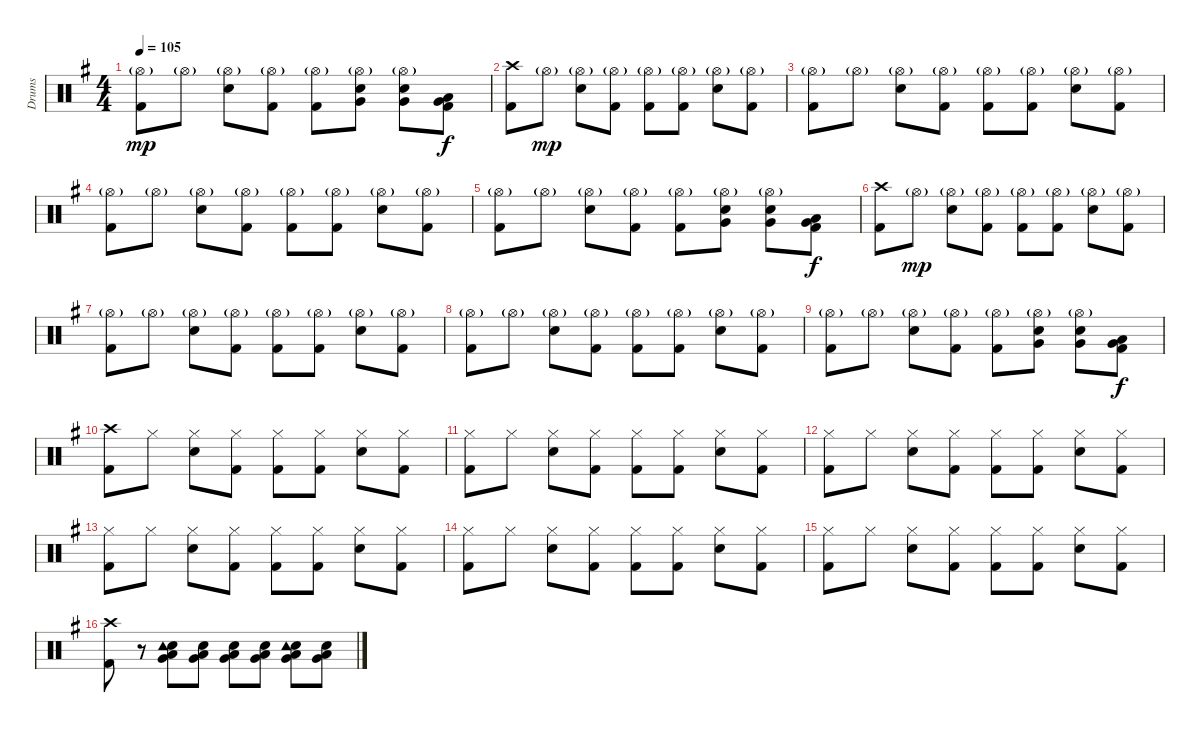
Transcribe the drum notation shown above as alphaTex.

\track ("Drums" "Drums") {instrument percussion}
\staff {score}
\articulation defaults
\ts (4 4)
\tempo 105
\clef neutral
\ks g
("Hi-Hat (open)"{g} "Kick (hit) 2").8{dy mp} "Hi-Hat (open)"{g}.8 ("Hi-Hat (open)"{g} "Snare (hit) 2").8 ("Hi-Hat (open)"{g} "Kick (hit) 2").8 ("Hi-Hat (open)"{g} "Kick (hit) 2").8 ("Hi-Hat (open)"{g} "Snare (hit) 2" "Very Low Tom (hit)").8 ("Hi-Hat (open)"{g} "Snare (hit) 2" "Very Low Tom (hit)").8 ("Kick (hit) 2" "Low Tom (hit)" "Very Low Tom (hit)").8{dy f} |
("Kick (hit) 2" "Crash high (hit)").8 "Hi-Hat (open)"{g}.8{dy mp} ("Hi-Hat (open)"{g} "Snare (hit) 2").8 ("Hi-Hat (open)"{g} "Kick (hit) 2").8 ("Hi-Hat (open)"{g} "Kick (hit) 2").8 ("Hi-Hat (open)"{g} "Kick (hit) 2").8 ("Hi-Hat (open)"{g} "Snare (hit) 2").8 ("Hi-Hat (open)"{g} "Kick (hit) 2").8 |
("Hi-Hat (open)"{g} "Kick (hit) 2").8 "Hi-Hat (open)"{g}.8 ("Hi-Hat (open)"{g} "Snare (hit) 2").8 ("Hi-Hat (open)"{g} "Kick (hit) 2").8 ("Hi-Hat (open)"{g} "Kick (hit) 2").8 ("Hi-Hat (open)"{g} "Kick (hit) 2").8 ("Hi-Hat (open)"{g} "Snare (hit) 2").8 ("Hi-Hat (open)"{g} "Kick (hit) 2").8 |
("Hi-Hat (open)"{g} "Kick (hit) 2").8 "Hi-Hat (open)"{g}.8 ("Hi-Hat (open)"{g} "Snare (hit) 2").8 ("Hi-Hat (open)"{g} "Kick (hit) 2").8 ("Hi-Hat (open)"{g} "Kick (hit) 2").8 ("Hi-Hat (open)"{g} "Kick (hit) 2").8 ("Hi-Hat (open)"{g} "Snare (hit) 2").8 ("Hi-Hat (open)"{g} "Kick (hit) 2").8 |
("Hi-Hat (open)"{g} "Kick (hit) 2").8 "Hi-Hat (open)"{g}.8 ("Hi-Hat (open)"{g} "Snare (hit) 2").8 ("Hi-Hat (open)"{g} "Kick (hit) 2").8 ("Hi-Hat (open)"{g} "Kick (hit) 2").8 ("Hi-Hat (open)"{g} "Snare (hit) 2" "Very Low Tom (hit)").8 ("Hi-Hat (open)"{g} "Snare (hit) 2" "Very Low Tom (hit)").8 ("Kick (hit) 2" "Low Tom (hit)" "Very Low Tom (hit)").8{dy f} |
("Kick (hit) 2" "Crash high (hit)").8 "Hi-Hat (open)"{g}.8{dy mp} ("Hi-Hat (open)"{g} "Snare (hit) 2").8 ("Hi-Hat (open)"{g} "Kick (hit) 2").8 ("Hi-Hat (open)"{g} "Kick (hit) 2").8 ("Hi-Hat (open)"{g} "Kick (hit) 2").8 ("Hi-Hat (open)"{g} "Snare (hit) 2").8 ("Hi-Hat (open)"{g} "Kick (hit) 2").8 |
("Hi-Hat (open)"{g} "Kick (hit) 2").8 "Hi-Hat (open)"{g}.8 ("Hi-Hat (open)"{g} "Snare (hit) 2").8 ("Hi-Hat (open)"{g} "Kick (hit) 2").8 ("Hi-Hat (open)"{g} "Kick (hit) 2").8 ("Hi-Hat (open)"{g} "Kick (hit) 2").8 ("Hi-Hat (open)"{g} "Snare (hit) 2").8 ("Hi-Hat (open)"{g} "Kick (hit) 2").8 |
("Hi-Hat (open)"{g} "Kick (hit) 2").8 "Hi-Hat (open)"{g}.8 ("Hi-Hat (open)"{g} "Snare (hit) 2").8 ("Hi-Hat (open)"{g} "Kick (hit) 2").8 ("Hi-Hat (open)"{g} "Kick (hit) 2").8 ("Hi-Hat (open)"{g} "Kick (hit) 2").8 ("Hi-Hat (open)"{g} "Snare (hit) 2").8 ("Hi-Hat (open)"{g} "Kick (hit) 2").8 |
("Hi-Hat (open)"{g} "Kick (hit) 2").8 "Hi-Hat (open)"{g}.8 ("Hi-Hat (open)"{g} "Snare (hit) 2").8 ("Hi-Hat (open)"{g} "Kick (hit) 2").8 ("Hi-Hat (open)"{g} "Kick (hit) 2").8 ("Hi-Hat (open)"{g} "Snare (hit) 2" "Very Low Tom (hit)").8 ("Hi-Hat (open)"{g} "Snare (hit) 2" "Very Low Tom (hit)").8 ("Kick (hit) 2" "Low Tom (hit)" "Very Low Tom (hit)").8{dy f} |
("Kick (hit) 2" "Crash high (hit)").8 "Hi-Hat (closed)".8 ("Hi-Hat (closed)" "Snare (hit) 2").8 ("Hi-Hat (closed)" "Kick (hit) 2").8 ("Hi-Hat (closed)" "Kick (hit) 2").8 ("Hi-Hat (closed)" "Kick (hit) 2").8 ("Hi-Hat (closed)" "Snare (hit) 2").8 ("Hi-Hat (closed)" "Kick (hit) 2").8 |
("Hi-Hat (closed)" "Kick (hit) 2").8 "Hi-Hat (closed)".8 ("Hi-Hat (closed)" "Snare (hit) 2").8 ("Hi-Hat (closed)" "Kick (hit) 2").8 ("Hi-Hat (closed)" "Kick (hit) 2").8 ("Hi-Hat (closed)" "Kick (hit) 2").8 ("Hi-Hat (closed)" "Snare (hit) 2").8 ("Hi-Hat (closed)" "Kick (hit) 2").8 |
("Hi-Hat (closed)" "Kick (hit) 2").8 "Hi-Hat (closed)".8 ("Hi-Hat (closed)" "Snare (hit) 2").8 ("Hi-Hat (closed)" "Kick (hit) 2").8 ("Hi-Hat (closed)" "Kick (hit) 2").8 ("Hi-Hat (closed)" "Kick (hit) 2").8 ("Hi-Hat (closed)" "Snare (hit) 2").8 ("Hi-Hat (closed)" "Kick (hit) 2").8 |
("Hi-Hat (closed)" "Kick (hit) 2").8 "Hi-Hat (closed)".8 ("Hi-Hat (closed)" "Snare (hit) 2").8 ("Hi-Hat (closed)" "Kick (hit) 2").8 ("Hi-Hat (closed)" "Kick (hit) 2").8 ("Hi-Hat (closed)" "Kick (hit) 2").8 ("Hi-Hat (closed)" "Snare (hit) 2").8 ("Hi-Hat (closed)" "Kick (hit) 2").8 |
("Hi-Hat (closed)" "Kick (hit) 2").8 "Hi-Hat (closed)".8 ("Hi-Hat (closed)" "Snare (hit) 2").8 ("Hi-Hat (closed)" "Kick (hit) 2").8 ("Hi-Hat (closed)" "Kick (hit) 2").8 ("Hi-Hat (closed)" "Kick (hit) 2").8 ("Hi-Hat (closed)" "Snare (hit) 2").8 ("Hi-Hat (closed)" "Kick (hit) 2").8 |
("Hi-Hat (closed)" "Kick (hit) 2").8 "Hi-Hat (closed)".8 ("Hi-Hat (closed)" "Snare (hit) 2").8 ("Hi-Hat (closed)" "Kick (hit) 2").8 ("Hi-Hat (closed)" "Kick (hit) 2").8 ("Hi-Hat (closed)" "Kick (hit) 2").8 ("Hi-Hat (closed)" "Snare (hit) 2").8 ("Hi-Hat (closed)" "Kick (hit) 2").8 |
("Kick (hit) 2" "Crash high (hit)").8 r.8 ("Snare (hit) 2" "Low Tom (hit)" "Very Low Tom (hit)" "Tambourine (hit)").8 ("Snare (hit) 2" "Low Tom (hit)" "Very Low Tom (hit)").8 ("Snare (hit) 2" "Low Tom (hit)" "Very Low Tom (hit)").8 ("Snare (hit) 2" "Low Tom (hit)" "Very Low Tom (hit)").8 ("Snare (hit) 2" "Low Tom (hit)" "Very Low Tom (hit)" "Tambourine (hit)").8 ("Snare (hit) 2" "Low Tom (hit)" "Very Low Tom (hit)").8
